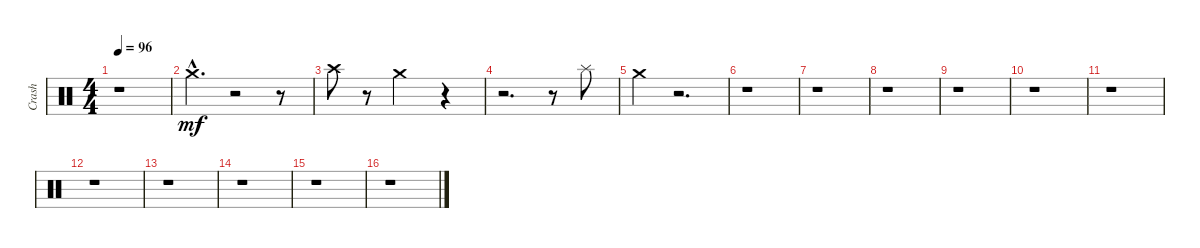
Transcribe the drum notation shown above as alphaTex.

\track ("Crash" "Crash") {instrument percussion}
\staff {score}
\articulation defaults
\ts (4 4)
\tempo 96
\clef neutral
\ks c
r.1{dy mf} |
"Crash medium (hit)"{hac}.4{d} r.2 r.8 |
"Crash high (hit)".8 r.8 "Crash medium (hit)".2 r.4 |
r.2{d} r.8 "Splash (hit)".8 |
"Crash medium (hit)".4 r.2{d} |
r.1 |
r.1 |
r.1 |
r.1 |
r.1 |
r.1 |
r.1 |
r.1 |
r.1 |
r.1 |
r.1
